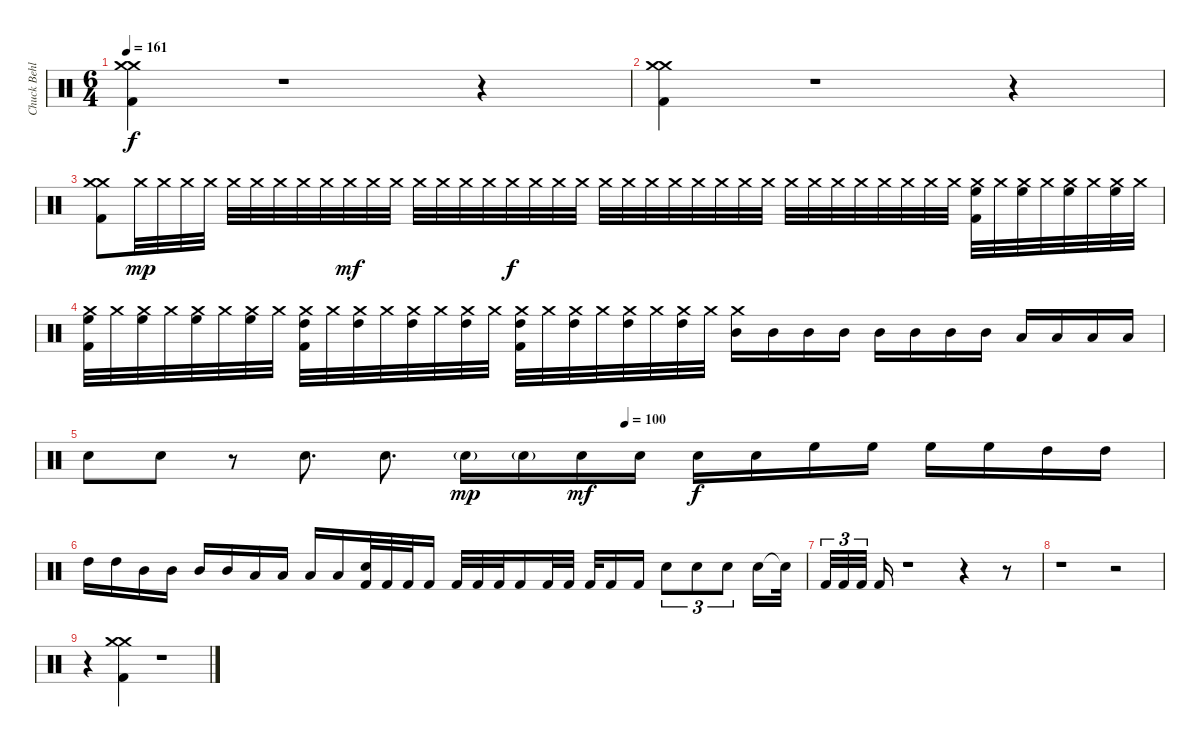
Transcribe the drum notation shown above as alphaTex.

\track ("Chuck Behler" "Chuck Behl") {instrument percussion}
\staff {score}
\articulation defaults
\ts (6 4)
\tempo 161
\clef neutral
\ks c
("Crash medium (hit)" "Crash medium (hit)" "Kick (hit) 2").4{dy f} r.1 r.4 |
("Crash medium (hit)" "Crash medium (hit)" "Kick (hit) 2").4 r.1 r.4 |
("Crash medium (hit)" "Crash medium (hit)" "Kick (hit) 2").8 "Crash medium (hit)".32{dy mp} "Crash medium (hit)".32 "Crash medium (hit)".32 "Crash medium (hit)".32 "Crash medium (hit)".32 "Crash medium (hit)".32 "Crash medium (hit)".32 "Crash medium (hit)".32 "Crash medium (hit)".32 "Crash medium (hit)".32{dy mf} "Crash medium (hit)".32 "Crash medium (hit)".32 "Crash medium (hit)".32 "Crash medium (hit)".32 "Crash medium (hit)".32 "Crash medium (hit)".32 "Crash medium (hit)".32{dy f} "Crash medium (hit)".32 "Crash medium (hit)".32 "Crash medium (hit)".32 "Crash medium (hit)".32 "Crash medium (hit)".32 "Crash medium (hit)".32 "Crash medium (hit)".32 "Crash medium (hit)".32 "Crash medium (hit)".32 "Crash medium (hit)".32 "Crash medium (hit)".32 "Crash medium (hit)".32 "Crash medium (hit)".32 "Crash medium (hit)".32 "Crash medium (hit)".32 "Crash medium (hit)".32 "Crash medium (hit)".32 "Crash medium (hit)".32 "Crash medium (hit)".32 ("Crash medium (hit)" "High Floor Tom (hit)" "Kick (hit) 2").32 "Crash medium (hit)".32 ("Crash medium (hit)" "High Floor Tom (hit)").32 "Crash medium (hit)".32 ("Crash medium (hit)" "High Floor Tom (hit)").32 "Crash medium (hit)".32 ("Crash medium (hit)" "High Floor Tom (hit)").32 "Crash medium (hit)".32 |
("Crash medium (hit)" "High Floor Tom (hit)" "Kick (hit) 2").32 "Crash medium (hit)".32 ("Crash medium (hit)" "High Floor Tom (hit)").32 "Crash medium (hit)".32 ("Crash medium (hit)" "High Floor Tom (hit)").32 "Crash medium (hit)".32 ("Crash medium (hit)" "High Floor Tom (hit)").32 "Crash medium (hit)".32 ("Crash medium (hit)" "High Tom (hit)" "Kick (hit) 2").32 "Crash medium (hit)".32 ("Crash medium (hit)" "High Tom (hit)").32 "Crash medium (hit)".32 ("Crash medium (hit)" "High Tom (hit)").32 "Crash medium (hit)".32 ("Crash medium (hit)" "High Tom (hit)").32 "Crash medium (hit)".32 ("Crash medium (hit)" "High Tom (hit)" "Kick (hit) 2").32 "Crash medium (hit)".32 ("Crash medium (hit)" "High Tom (hit)").32 "Crash medium (hit)".32 ("Crash medium (hit)" "High Tom (hit)").32 "Crash medium (hit)".32 ("Crash medium (hit)" "High Tom (hit)").32 "Crash medium (hit)".32 ("Crash medium (hit)" "Mid Tom (hit)").16 "Mid Tom (hit)".16 "Mid Tom (hit)".16 "Mid Tom (hit)".16 "Mid Tom (hit)".16 "Mid Tom (hit)".16 "Mid Tom (hit)".16 "Mid Tom (hit)".16 "Low Tom (hit)".16 "Low Tom (hit)".16 "Low Tom (hit)".16 "Low Tom (hit)".16 |
\tempo (100 0.5)
"Snare (hit) 2".8 "Snare (hit) 2".8 r.8 "Snare (hit) 2".8{d} "Snare (hit) 2".8{d} "Snare (hit) 2"{g}.16{dy mp} "Snare (hit) 2"{g}.16 "Snare (hit) 2".16{dy mf} "Snare (hit) 2".16 "Snare (hit) 2".16{dy f} "Snare (hit) 2".16 "High Floor Tom (hit)".16 "High Floor Tom (hit)".16 "High Floor Tom (hit)".16 "High Floor Tom (hit)".16 "High Tom (hit)".16 "High Tom (hit)".16 |
"High Tom (hit)".16 "High Tom (hit)".16 "Mid Tom (hit)".16 "Mid Tom (hit)".16 "Mid Tom (hit)".16 "Mid Tom (hit)".16 "Low Tom (hit)".16 "Low Tom (hit)".16 "Low Tom (hit)".16 "Low Tom (hit)".16 ("Snare (hit) 2" "Kick (hit) 2").32 "Kick (hit) 2".32 "Kick (hit) 2".32 "Kick (hit) 2".16 "Kick (hit) 2".32 "Kick (hit) 2".32 "Kick (hit) 2".32 "Kick (hit) 2".16 "Kick (hit) 2".32 "Kick (hit) 2".32 "Kick (hit) 2".32 "Kick (hit) 2".16 "Kick (hit) 2".16 "Snare (hit) 2".8{tu (3 2)} "Snare (hit) 2".8{tu (3 2)} "Snare (hit) 2".8{tu (3 2)} "Snare (hit) 2".16 "Snare (hit)"{t}.32 |
"Kick (hit) 2".32{tu (3 2)} "Kick (hit) 2".32{tu (3 2)} "Kick (hit) 2".32{tu (3 2) beam splitsecondary} "Kick (hit) 2".16 r.1 r.4 r.8 |
r.1 r.2 |
r.4 ("Crash medium (hit)" "Crash medium (hit)" "Kick (hit) 2").4 r.1
